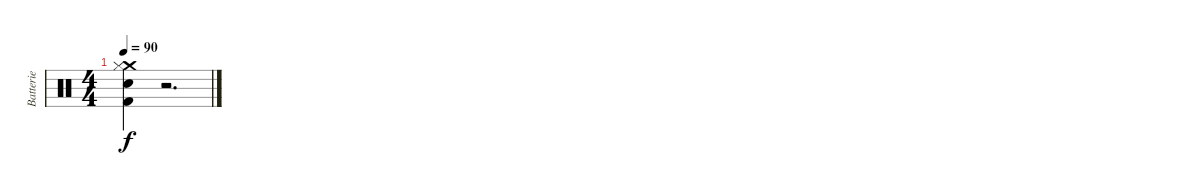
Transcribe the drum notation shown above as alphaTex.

\track ("Batterie" "Batterie") {instrument percussion}
\staff {score}
\articulation defaults
\ts (4 4)
\tempo 90
\clef neutral
\ks c
("Crash medium (hit)" "Electric Snare (hit)" "Hi-Hat (closed)" "Kick (hit) 2").4{dy f} r.2{d}
